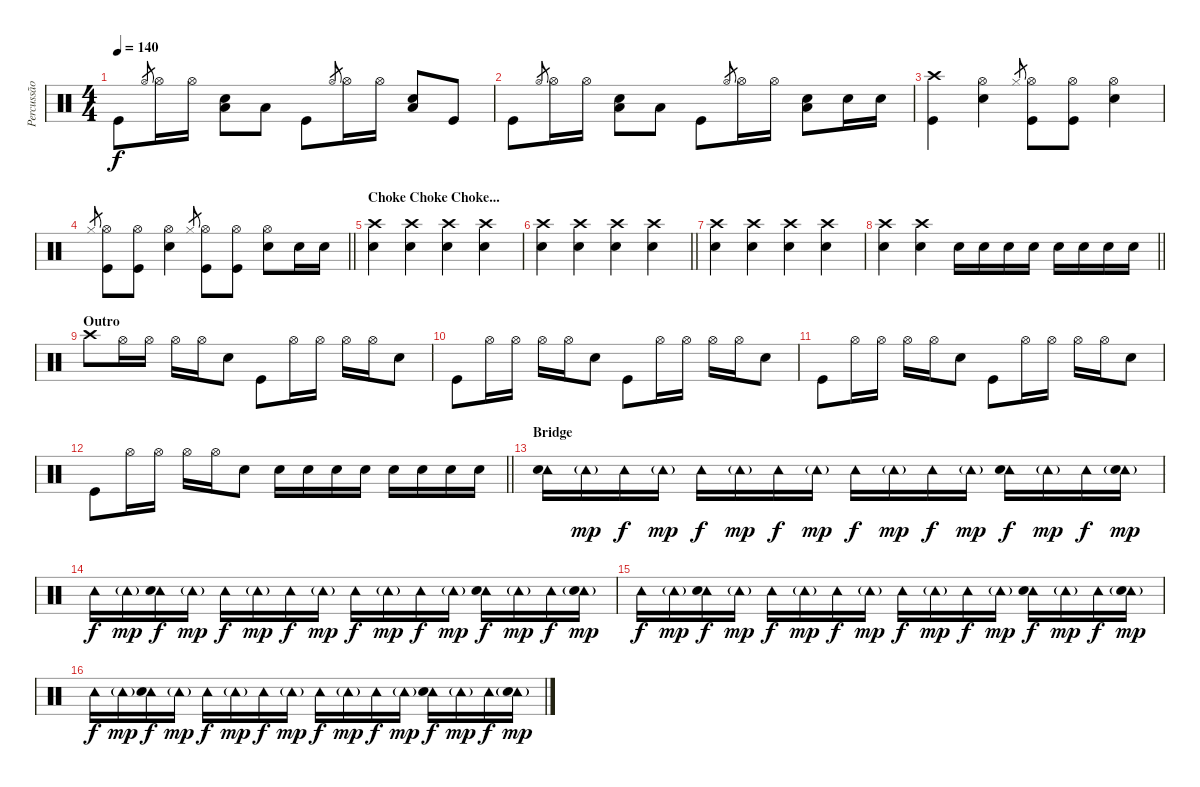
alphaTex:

\track ("Percussão" "Percussão") {instrument percussion}
\staff {score}
\articulation defaults
\ts (4 4)
\tempo 140
\clef neutral
\ks c "Kick (hit)".8{dy f} "Hi-Hat (open)".8{gr} "Hi-Hat (open)".16 "Hi-Hat (open)".16
("Snare (hit) 2" "Low Tom (hit)").8 "Low Tom (hit)".8 "Kick (hit)".8 "Hi-Hat (open)".8{gr} "Hi-Hat (open)".16 "Hi-Hat (open)".16 ("Snare (hit) 2" "Low Tom (hit)").8 "Kick (hit)".8 |
"Kick (hit)".8 "Hi-Hat (open)".8{gr} "Hi-Hat (open)".16 "Hi-Hat (open)".16 ("Snare (hit) 2" "Low Tom (hit)").8 "Low Tom (hit)".8 "Kick (hit)".8 "Hi-Hat (open)".8{gr} "Hi-Hat (open)".16 "Hi-Hat (open)".16 ("Snare (hit) 2" "Low Tom (hit)").8 "Snare (hit) 2".16 "Snare (hit) 2".16 |
("Crash high (hit)" "Kick (hit)").4 ("Hi-Hat (open)" "Snare (hit) 2").4 "Hi-Hat (closed)".8{gr} ("Hi-Hat (open)" "Kick (hit)").8 ("Hi-Hat (open)" "Kick (hit)").8 ("Hi-Hat (open)" "Snare (hit) 2").4 |
\barLineRight lightlight "Hi-Hat (closed)".8{gr}
("Hi-Hat (open)" "Kick (hit)").8 ("Hi-Hat (open)" "Kick (hit)").8 ("Hi-Hat (open)" "Snare (hit) 2").4 "Hi-Hat (closed)".8{gr} ("Hi-Hat (open)" "Kick (hit)").8 ("Hi-Hat (open)" "Kick (hit)").8 ("Hi-Hat (open)" "Snare (hit) 2").8 "Snare (hit) 2".16 "Snare (hit) 2".16 |
\section ("" "Choke Choke Choke...")
("Crash high (hit)" "Snare (hit) 2").4 ("Crash high (hit)" "Snare (hit) 2").4 ("Crash high (hit)" "Snare (hit) 2").4 ("Crash high (hit)" "Snare (hit) 2").4 |
\barLineRight lightlight
("Crash high (hit)" "Snare (hit) 2").4 ("Crash high (hit)" "Snare (hit) 2").4 ("Crash high (hit)" "Snare (hit) 2").4 ("Crash high (hit)" "Snare (hit) 2").4 |
("Crash high (hit)" "Snare (hit) 2").4 ("Crash high (hit)" "Snare (hit) 2").4 ("Crash high (hit)" "Snare (hit) 2").4 ("Crash high (hit)" "Snare (hit) 2").4 |
\barLineRight lightlight
("Crash high (hit)" "Snare (hit) 2").4 ("Crash high (hit)" "Snare (hit) 2").4 "Snare (hit) 2".16 "Snare (hit) 2".16 "Snare (hit) 2".16 "Snare (hit) 2".16 "Snare (hit) 2".16 "Snare (hit) 2".16 "Snare (hit) 2".16 "Snare (hit) 2".16 |
\section ("" "Outro")
"Crash high (hit)".8 "Hi-Hat (open)".16 "Hi-Hat (open)".16 "Hi-Hat (open)".16 "Hi-Hat (open)".16 "Snare (hit) 2".8 "Kick (hit)".8 "Hi-Hat (open)".16 "Hi-Hat (open)".16 "Hi-Hat (open)".16 "Hi-Hat (open)".16 "Snare (hit) 2".8 |
"Kick (hit)".8 "Hi-Hat (open)".16 "Hi-Hat (open)".16 "Hi-Hat (open)".16 "Hi-Hat (open)".16 "Snare (hit) 2".8 "Kick (hit)".8 "Hi-Hat (open)".16 "Hi-Hat (open)".16 "Hi-Hat (open)".16 "Hi-Hat (open)".16 "Snare (hit) 2".8 |
"Kick (hit)".8 "Hi-Hat (open)".16 "Hi-Hat (open)".16 "Hi-Hat (open)".16 "Hi-Hat (open)".16 "Snare (hit) 2".8 "Kick (hit)".8 "Hi-Hat (open)".16 "Hi-Hat (open)".16 "Hi-Hat (open)".16 "Hi-Hat (open)".16 "Snare (hit) 2".8 |
\barLineRight lightlight "Kick (hit)".8 "Hi-Hat (open)".16 "Hi-Hat (open)".16 "Hi-Hat (open)".16 "Hi-Hat (open)".16 "Snare (hit) 2".8 "Snare (hit) 2".16 "Snare (hit) 2".16 "Snare (hit) 2".16 "Snare (hit) 2".16 "Snare (hit) 2".16 "Snare (hit) 2".16 "Snare (hit) 2".16 "Snare (hit) 2".16
|
\section ("" "Bridge")
("Tambourine (hit)" "Snare (hit) 2").16 "Tambourine (hit)"{g}.16{dy mp} "Tambourine (hit)".16{dy f} "Tambourine (hit)"{g}.16{dy mp} "Tambourine (hit)".16{dy f} "Tambourine (hit)"{g}.16{dy mp} "Tambourine (hit)".16{dy f} "Tambourine (hit)"{g}.16{dy mp} "Tambourine (hit)".16{dy f} "Tambourine (hit)"{g}.16{dy mp} "Tambourine (hit)".16{dy f} "Tambourine (hit)"{g}.16{dy mp} ("Tambourine (hit)" "Snare (hit) 2").16{dy f} "Tambourine (hit)"{g}.16{dy mp} "Tambourine (hit)".16{dy f} ("Tambourine (hit)"{g} "Snare (hit) 2").16{dy mp} |
"Tambourine (hit)".16{dy f} "Tambourine (hit)"{g}.16{dy mp} ("Tambourine (hit)" "Snare (hit) 2").16{dy f} "Tambourine (hit)"{g}.16{dy mp} "Tambourine (hit)".16{dy f} "Tambourine (hit)"{g}.16{dy mp} "Tambourine (hit)".16{dy f} "Tambourine (hit)"{g}.16{dy mp} "Tambourine (hit)".16{dy f} "Tambourine (hit)"{g}.16{dy mp} "Tambourine (hit)".16{dy f} "Tambourine (hit)"{g}.16{dy mp} ("Tambourine (hit)" "Snare (hit) 2").16{dy f} "Tambourine (hit)"{g}.16{dy mp} "Tambourine (hit)".16{dy f} ("Tambourine (hit)"{g} "Snare (hit) 2").16{dy mp} |
"Tambourine (hit)".16{dy f} "Tambourine (hit)"{g}.16{dy mp} ("Tambourine (hit)" "Snare (hit) 2").16{dy f} "Tambourine (hit)"{g}.16{dy mp} "Tambourine (hit)".16{dy f} "Tambourine (hit)"{g}.16{dy mp} "Tambourine (hit)".16{dy f} "Tambourine (hit)"{g}.16{dy mp} "Tambourine (hit)".16{dy f} "Tambourine (hit)"{g}.16{dy mp} "Tambourine (hit)".16{dy f} "Tambourine (hit)"{g}.16{dy mp} ("Tambourine (hit)" "Snare (hit) 2").16{dy f} "Tambourine (hit)"{g}.16{dy mp} "Tambourine (hit)".16{dy f} ("Tambourine (hit)"{g} "Snare (hit) 2").16{dy mp} |
"Tambourine (hit)".16{dy f} "Tambourine (hit)"{g}.16{dy mp} ("Tambourine (hit)" "Snare (hit) 2").16{dy f} "Tambourine (hit)"{g}.16{dy mp} "Tambourine (hit)".16{dy f} "Tambourine (hit)"{g}.16{dy mp} "Tambourine (hit)".16{dy f} "Tambourine (hit)"{g}.16{dy mp} "Tambourine (hit)".16{dy f} "Tambourine (hit)"{g}.16{dy mp} "Tambourine (hit)".16{dy f} "Tambourine (hit)"{g}.16{dy mp} ("Tambourine (hit)" "Snare (hit) 2").16{dy f} "Tambourine (hit)"{g}.16{dy mp} "Tambourine (hit)".16{dy f} ("Tambourine (hit)"{g} "Snare (hit) 2").16{dy mp}
